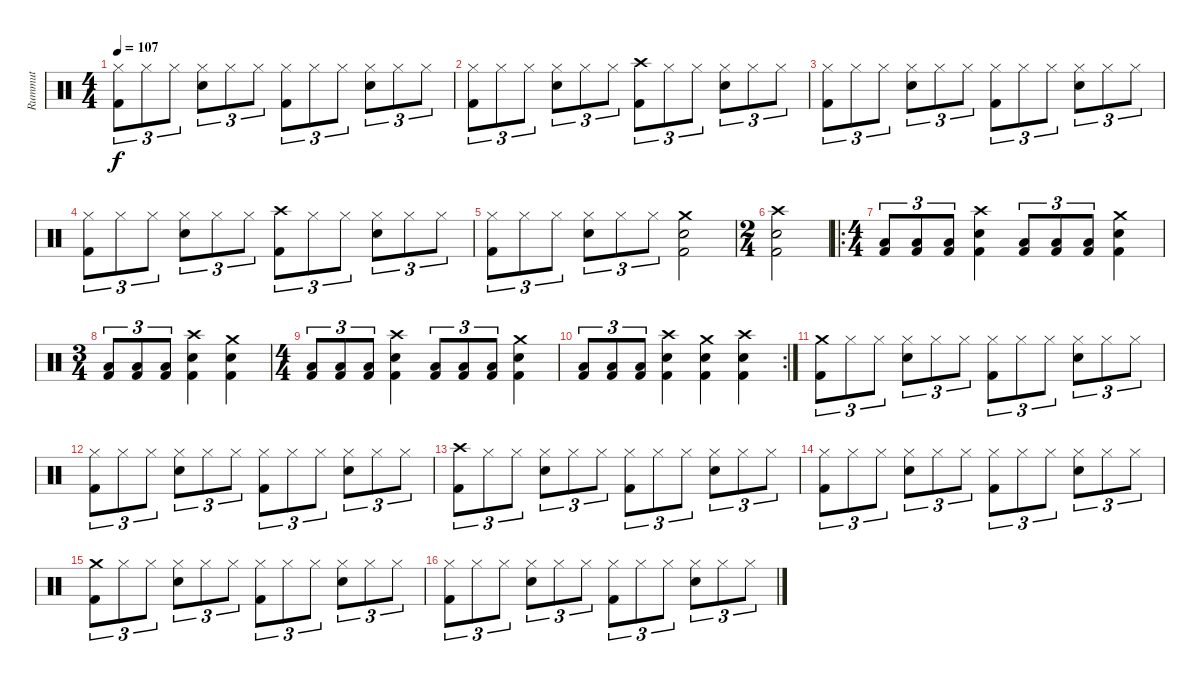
\track ("Rummut" "Rummut") {instrument percussion}
\staff {score}
\articulation defaults
\ts (4 4)
\tempo 107
\clef neutral
\ks c
("Hi-Hat (closed)" "Kick (hit) 2").8{tu (3 2) dy f} "Hi-Hat (closed)".8{tu (3 2)} "Hi-Hat (closed)".8{tu (3 2)} ("Hi-Hat (closed)" "Snare (hit) 2").8{tu (3 2)} "Hi-Hat (closed)".8{tu (3 2)} "Hi-Hat (closed)".8{tu (3 2)} ("Hi-Hat (closed)" "Kick (hit) 2").8{tu (3 2)} "Hi-Hat (closed)".8{tu (3 2)} "Hi-Hat (closed)".8{tu (3 2)} ("Hi-Hat (closed)" "Snare (hit) 2").8{tu (3 2)} "Hi-Hat (closed)".8{tu (3 2)} "Hi-Hat (closed)".8{tu (3 2)} |
("Hi-Hat (closed)" "Kick (hit) 2").8{tu (3 2)} "Hi-Hat (closed)".8{tu (3 2)} "Hi-Hat (closed)".8{tu (3 2)} ("Hi-Hat (closed)" "Snare (hit) 2").8{tu (3 2)} "Hi-Hat (closed)".8{tu (3 2)} "Hi-Hat (closed)".8{tu (3 2)} ("Crash high (hit)" "Kick (hit) 2").8{tu (3 2)} "Hi-Hat (closed)".8{tu (3 2)} "Hi-Hat (closed)".8{tu (3 2)} ("Hi-Hat (closed)" "Snare (hit) 2").8{tu (3 2)} "Hi-Hat (closed)".8{tu (3 2)} "Hi-Hat (closed)".8{tu (3 2)} |
("Hi-Hat (closed)" "Kick (hit) 2").8{tu (3 2)} "Hi-Hat (closed)".8{tu (3 2)} "Hi-Hat (closed)".8{tu (3 2)} ("Hi-Hat (closed)" "Snare (hit) 2").8{tu (3 2)} "Hi-Hat (closed)".8{tu (3 2)} "Hi-Hat (closed)".8{tu (3 2)} ("Hi-Hat (closed)" "Kick (hit) 2").8{tu (3 2)} "Hi-Hat (closed)".8{tu (3 2)} "Hi-Hat (closed)".8{tu (3 2)} ("Hi-Hat (closed)" "Snare (hit) 2").8{tu (3 2)} "Hi-Hat (closed)".8{tu (3 2)} "Hi-Hat (closed)".8{tu (3 2)} |
("Hi-Hat (closed)" "Kick (hit) 2").8{tu (3 2)} "Hi-Hat (closed)".8{tu (3 2)} "Hi-Hat (closed)".8{tu (3 2)} ("Hi-Hat (closed)" "Snare (hit) 2").8{tu (3 2)} "Hi-Hat (closed)".8{tu (3 2)} "Hi-Hat (closed)".8{tu (3 2)} ("Crash high (hit)" "Kick (hit) 2").8{tu (3 2)} "Hi-Hat (closed)".8{tu (3 2)} "Hi-Hat (closed)".8{tu (3 2)} ("Hi-Hat (closed)" "Snare (hit) 2").8{tu (3 2)} "Hi-Hat (closed)".8{tu (3 2)} "Hi-Hat (closed)".8{tu (3 2)} |
("Hi-Hat (closed)" "Kick (hit) 2").8{tu (3 2)} "Hi-Hat (closed)".8{tu (3 2)} "Hi-Hat (closed)".8{tu (3 2)} ("Hi-Hat (closed)" "Snare (hit) 2").8{tu (3 2)} "Hi-Hat (closed)".8{tu (3 2)} "Hi-Hat (closed)".8{tu (3 2)} ("Crash medium (hit)" "Snare (hit) 2" "Kick (hit) 2").2 |
\ts (2 4)
("Crash high (hit)" "Snare (hit) 2" "Kick (hit) 2").2 |
\ro
\ts (4 4)
("Low Floor Tom (hit)" "Kick (hit) 2").8{tu (3 2)} ("Low Floor Tom (hit)" "Kick (hit) 2").8{tu (3 2)} ("Low Floor Tom (hit)" "Kick (hit) 2").8{tu (3 2)} ("Crash high (hit)" "Snare (hit) 2" "Kick (hit) 2").4 ("Low Floor Tom (hit)" "Kick (hit) 2").8{tu (3 2)} ("Low Floor Tom (hit)" "Kick (hit) 2").8{tu (3 2)} ("Low Floor Tom (hit)" "Kick (hit) 2").8{tu (3 2)} ("Crash medium (hit)" "Snare (hit) 2" "Kick (hit) 2").4 |
\ts (3 4)
("Low Floor Tom (hit)" "Kick (hit) 2").8{tu (3 2)} ("Low Floor Tom (hit)" "Kick (hit) 2").8{tu (3 2)} ("Low Floor Tom (hit)" "Kick (hit) 2").8{tu (3 2)} ("Crash high (hit)" "Snare (hit) 2" "Kick (hit) 2").4 ("Crash medium (hit)" "Snare (hit) 2" "Kick (hit) 2").4 |
\ts (4 4)
("Low Floor Tom (hit)" "Kick (hit) 2").8{tu (3 2)} ("Low Floor Tom (hit)" "Kick (hit) 2").8{tu (3 2)} ("Low Floor Tom (hit)" "Kick (hit) 2").8{tu (3 2)} ("Crash high (hit)" "Snare (hit) 2" "Kick (hit) 2").4 ("Low Floor Tom (hit)" "Kick (hit) 2").8{tu (3 2)} ("Low Floor Tom (hit)" "Kick (hit) 2").8{tu (3 2)} ("Low Floor Tom (hit)" "Kick (hit) 2").8{tu (3 2)} ("Crash medium (hit)" "Snare (hit) 2" "Kick (hit) 2").4 |
\rc 2
("Low Floor Tom (hit)" "Kick (hit) 2").8{tu (3 2)} ("Low Floor Tom (hit)" "Kick (hit) 2").8{tu (3 2)} ("Low Floor Tom (hit)" "Kick (hit) 2").8{tu (3 2)} ("Crash high (hit)" "Snare (hit) 2" "Kick (hit) 2").4 ("Crash medium (hit)" "Snare (hit) 2" "Kick (hit) 2").4 ("Crash high (hit)" "Snare (hit) 2" "Kick (hit) 2").4 |
("Crash medium (hit)" "Kick (hit) 2").8{tu (3 2)} "Hi-Hat (closed)".8{tu (3 2)} "Hi-Hat (closed)".8{tu (3 2)} ("Hi-Hat (closed)" "Snare (hit) 2").8{tu (3 2)} "Hi-Hat (closed)".8{tu (3 2)} "Hi-Hat (closed)".8{tu (3 2)} ("Hi-Hat (closed)" "Kick (hit) 2").8{tu (3 2)} "Hi-Hat (closed)".8{tu (3 2)} "Hi-Hat (closed)".8{tu (3 2)} ("Hi-Hat (closed)" "Snare (hit) 2").8{tu (3 2)} "Hi-Hat (closed)".8{tu (3 2)} "Hi-Hat (closed)".8{tu (3 2)} |
("Hi-Hat (closed)" "Kick (hit) 2").8{tu (3 2)} "Hi-Hat (closed)".8{tu (3 2)} "Hi-Hat (closed)".8{tu (3 2)} ("Hi-Hat (closed)" "Snare (hit) 2").8{tu (3 2)} "Hi-Hat (closed)".8{tu (3 2)} "Hi-Hat (closed)".8{tu (3 2)} ("Hi-Hat (closed)" "Kick (hit) 2").8{tu (3 2)} "Hi-Hat (closed)".8{tu (3 2)} "Hi-Hat (closed)".8{tu (3 2)} ("Hi-Hat (closed)" "Snare (hit) 2").8{tu (3 2)} "Hi-Hat (closed)".8{tu (3 2)} "Hi-Hat (closed)".8{tu (3 2)} |
("Crash high (hit)" "Kick (hit) 2").8{tu (3 2)} "Hi-Hat (closed)".8{tu (3 2)} "Hi-Hat (closed)".8{tu (3 2)} ("Hi-Hat (closed)" "Snare (hit) 2").8{tu (3 2)} "Hi-Hat (closed)".8{tu (3 2)} "Hi-Hat (closed)".8{tu (3 2)} ("Hi-Hat (closed)" "Kick (hit) 2").8{tu (3 2)} "Hi-Hat (closed)".8{tu (3 2)} "Hi-Hat (closed)".8{tu (3 2)} ("Hi-Hat (closed)" "Snare (hit) 2").8{tu (3 2)} "Hi-Hat (closed)".8{tu (3 2)} "Hi-Hat (closed)".8{tu (3 2)} |
("Hi-Hat (closed)" "Kick (hit) 2").8{tu (3 2)} "Hi-Hat (closed)".8{tu (3 2)} "Hi-Hat (closed)".8{tu (3 2)} ("Hi-Hat (closed)" "Snare (hit) 2").8{tu (3 2)} "Hi-Hat (closed)".8{tu (3 2)} "Hi-Hat (closed)".8{tu (3 2)} ("Hi-Hat (closed)" "Kick (hit) 2").8{tu (3 2)} "Hi-Hat (closed)".8{tu (3 2)} "Hi-Hat (closed)".8{tu (3 2)} ("Hi-Hat (closed)" "Snare (hit) 2").8{tu (3 2)} "Hi-Hat (closed)".8{tu (3 2)} "Hi-Hat (closed)".8{tu (3 2)} |
("Crash medium (hit)" "Kick (hit) 2").8{tu (3 2)} "Hi-Hat (closed)".8{tu (3 2)} "Hi-Hat (closed)".8{tu (3 2)} ("Hi-Hat (closed)" "Snare (hit) 2").8{tu (3 2)} "Hi-Hat (closed)".8{tu (3 2)} "Hi-Hat (closed)".8{tu (3 2)} ("Hi-Hat (closed)" "Kick (hit) 2").8{tu (3 2)} "Hi-Hat (closed)".8{tu (3 2)} "Hi-Hat (closed)".8{tu (3 2)} ("Hi-Hat (closed)" "Snare (hit) 2").8{tu (3 2)} "Hi-Hat (closed)".8{tu (3 2)} "Hi-Hat (closed)".8{tu (3 2)} |
("Hi-Hat (closed)" "Kick (hit) 2").8{tu (3 2)} "Hi-Hat (closed)".8{tu (3 2)} "Hi-Hat (closed)".8{tu (3 2)} ("Hi-Hat (closed)" "Snare (hit) 2").8{tu (3 2)} "Hi-Hat (closed)".8{tu (3 2)} "Hi-Hat (closed)".8{tu (3 2)} ("Hi-Hat (closed)" "Kick (hit) 2").8{tu (3 2)} "Hi-Hat (closed)".8{tu (3 2)} "Hi-Hat (closed)".8{tu (3 2)} ("Hi-Hat (closed)" "Snare (hit) 2").8{tu (3 2)} "Hi-Hat (closed)".8{tu (3 2)} "Hi-Hat (closed)".8{tu (3 2)}
